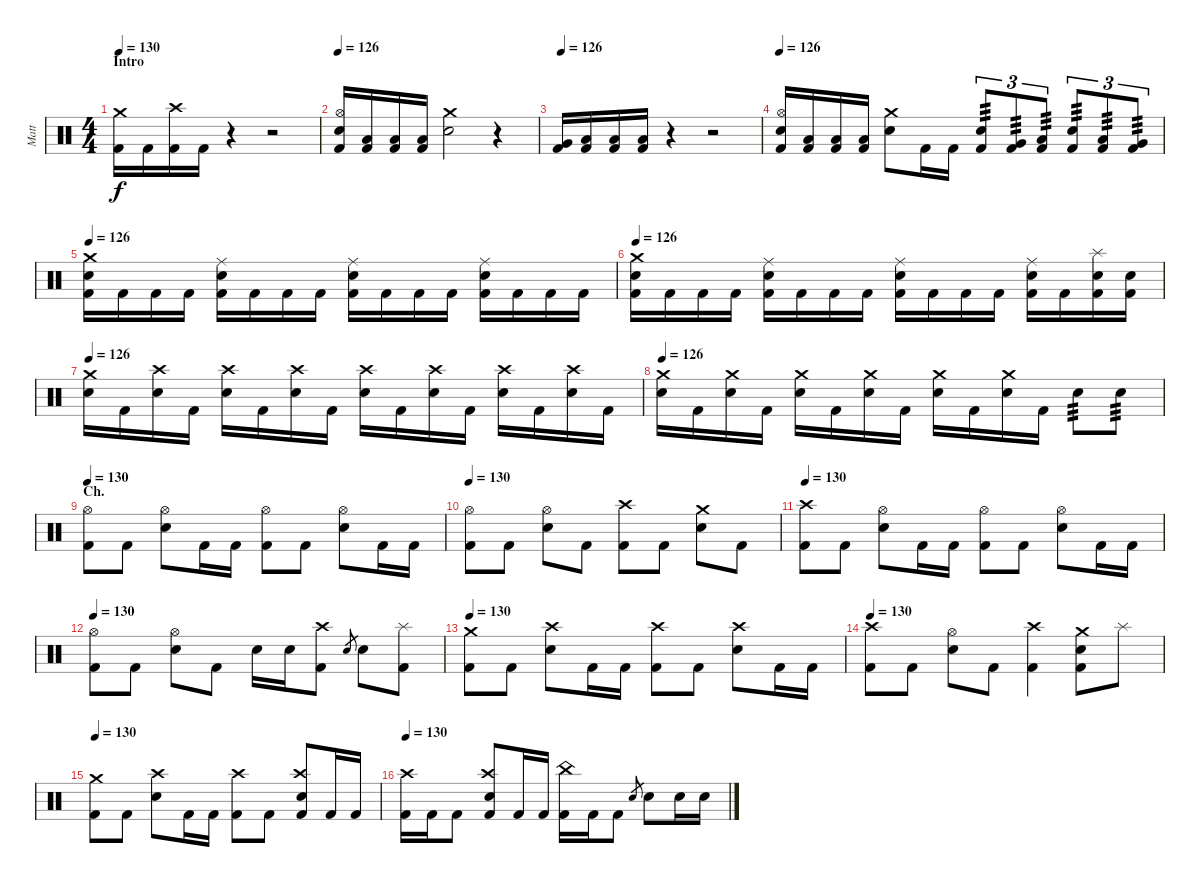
\track ("Matt" "Matt") {instrument percussion}
\staff {score}
\articulation defaults
\ts (4 4)
\section ("" "Intro")
\tempo 130
\tempo 126
\tempo 130
\clef neutral
\ks c
("Crash medium (hit)" "Kick (hit) 2").16{dy f} "Kick (hit) 2".16 ("Crash high (hit)" "Kick (hit) 2").16 "Kick (hit) 2".16 r.4 r.2 |
\tempo 126
("Hi-Hat (open)" "Electric Snare (hit)" "Kick (hit) 2").16 ("Low Floor Tom (hit)" "Kick (hit) 2").16 ("Low Floor Tom (hit)" "Kick (hit) 2").16 ("Low Floor Tom (hit)" "Kick (hit) 2").16 ("Crash medium (hit)" "Electric Snare (hit)").2 r.4 |
\tempo 126
("Very Low Tom (hit)" "Kick (hit) 2").16 ("Low Floor Tom (hit)" "Kick (hit) 2").16 ("Low Floor Tom (hit)" "Kick (hit) 2").16 ("Low Floor Tom (hit)" "Kick (hit) 2").16 r.4 r.2 |
\tempo 126
("Hi-Hat (open)" "Electric Snare (hit)" "Kick (hit) 2").16 ("Low Floor Tom (hit)" "Kick (hit) 2").16 ("Low Floor Tom (hit)" "Kick (hit) 2").16 ("Low Floor Tom (hit)" "Kick (hit) 2").16 ("Crash medium (hit)" "Electric Snare (hit)").8 "Kick (hit) 2".16 "Kick (hit) 2".16 ("Electric Snare (hit)" "Kick (hit) 2").8{tu (3 2) tp 3} ("Very Low Tom (hit)" "Kick (hit) 2").8{tu (3 2) tp 3} ("Low Floor Tom (hit)" "Kick (hit) 2").8{tu (3 2) tp 3} ("Electric Snare (hit)" "Kick (hit) 2").8{tu (3 2) tp 3} ("Low Tom (hit)" "Kick (hit) 2").8{tu (3 2) tp 3} ("Very Low Tom (hit)" "Kick (hit) 2").8{tu (3 2) tp 3} |
\tempo 126
("Crash medium (hit)" "Electric Snare (hit)" "Kick (hit) 2").16 "Kick (hit) 2".16 "Kick (hit) 2".16 "Kick (hit) 2".16 ("Ride (middle)" "Electric Snare (hit)" "Kick (hit) 2").16 "Kick (hit) 2".16 "Kick (hit) 2".16 "Kick (hit) 2".16 ("Ride (middle)" "Electric Snare (hit)" "Kick (hit) 2").16 "Kick (hit) 2".16 "Kick (hit) 2".16 "Kick (hit) 2".16 ("Ride (middle)" "Electric Snare (hit)" "Kick (hit) 2").16 "Kick (hit) 2".16 "Kick (hit) 2".16 "Kick (hit) 2".16 |
\tempo 126
("Crash medium (hit)" "Electric Snare (hit)" "Kick (hit) 2").16 "Kick (hit) 2".16 "Kick (hit) 2".16 "Kick (hit) 2".16 ("Ride (middle)" "Electric Snare (hit)" "Kick (hit) 2").16 "Kick (hit) 2".16 "Kick (hit) 2".16 "Kick (hit) 2".16 ("Ride (middle)" "Electric Snare (hit)" "Kick (hit) 2").16 "Kick (hit) 2".16 "Kick (hit) 2".16 "Kick (hit) 2".16 ("Ride (middle)" "Electric Snare (hit)" "Kick (hit) 2").16 "Kick (hit) 2".16 ("Splash (hit)" "Electric Snare (hit)" "Kick (hit) 2").16 ("Electric Snare (hit)" "Kick (hit) 2").16 |
\tempo 126
("Crash medium (hit)" "Electric Snare (hit)").16 "Kick (hit) 2".16 ("Crash high (hit)" "Electric Snare (hit)").16 "Kick (hit) 2".16 ("Crash high (hit)" "Electric Snare (hit)").16 "Kick (hit) 2".16 ("Crash high (hit)" "Electric Snare (hit)").16 "Kick (hit) 2".16 ("Crash high (hit)" "Electric Snare (hit)").16 "Kick (hit) 2".16 ("Crash high (hit)" "Electric Snare (hit)").16 "Kick (hit) 2".16 ("Crash high (hit)" "Electric Snare (hit)").16 "Kick (hit) 2".16 ("Crash high (hit)" "Electric Snare (hit)").16 "Kick (hit) 2".16 |
\tempo 126
("Crash medium (hit)" "Electric Snare (hit)").16 "Kick (hit) 2".16 ("Crash medium (hit)" "Electric Snare (hit)").16 "Kick (hit) 2".16 ("Crash medium (hit)" "Electric Snare (hit)").16 "Kick (hit) 2".16 ("Crash medium (hit)" "Electric Snare (hit)").16 "Kick (hit) 2".16 ("Crash medium (hit)" "Electric Snare (hit)").16 "Kick (hit) 2".16 ("Crash medium (hit)" "Electric Snare (hit)").16 "Kick (hit) 2".16 "Electric Snare (hit)".8{tp 3} "Electric Snare (hit)".8{tp 3} |
\section ("" "Ch.")
\tempo 130
("Hi-Hat (open)" "Kick (hit) 2").8 "Kick (hit) 2".8 ("Hi-Hat (open)" "Electric Snare (hit)").8 "Kick (hit) 2".16 "Kick (hit) 2".16 ("Hi-Hat (open)" "Kick (hit) 2").8 "Kick (hit) 2".8 ("Hi-Hat (open)" "Electric Snare (hit)").8 "Kick (hit) 2".16 "Kick (hit) 2".16 |
\tempo 130
("Hi-Hat (open)" "Kick (hit) 2").8 "Kick (hit) 2".8 ("Hi-Hat (open)" "Electric Snare (hit)").8 "Kick (hit) 2".8 ("Crash high (hit)" "Kick (hit) 2").8 "Kick (hit) 2".8 ("Crash medium (hit)" "Electric Snare (hit)").8 "Kick (hit) 2".8 |
\tempo 130
("Crash high (hit)" "Kick (hit) 2").8 "Kick (hit) 2".8 ("Hi-Hat (open)" "Electric Snare (hit)").8 "Kick (hit) 2".16 "Kick (hit) 2".16 ("Hi-Hat (open)" "Kick (hit) 2").8 "Kick (hit) 2".8 ("Hi-Hat (open)" "Electric Snare (hit)").8 "Kick (hit) 2".16 "Kick (hit) 2".16 |
\tempo 130
("Hi-Hat (open)" "Kick (hit) 2").8 "Kick (hit) 2".8 ("Hi-Hat (open)" "Electric Snare (hit)").8 "Kick (hit) 2".8 "Electric Snare (hit)".16 "Electric Snare (hit)".16 ("Crash high (hit)" "Kick (hit) 2").8 "Electric Snare (hit)".8{gr} "Electric Snare (hit)".8 ("Splash (hit)" "Kick (hit) 2").8 |
\tempo 130
("Crash medium (hit)" "Kick (hit) 2").8 "Kick (hit) 2".8 ("Crash high (hit)" "Electric Snare (hit)").8 "Kick (hit) 2".16 "Kick (hit) 2".16 ("Crash high (hit)" "Kick (hit) 2").8 "Kick (hit) 2".8 ("Crash high (hit)" "Electric Snare (hit)").8 "Kick (hit) 2".16 "Kick (hit) 2".16 |
\tempo 130
("Crash high (hit)" "Kick (hit) 2").8 "Kick (hit) 2".8 ("Hi-Hat (open)" "Electric Snare (hit)").8 "Kick (hit) 2".8 ("Crash high (hit)" "Kick (hit) 2").4 ("Crash medium (hit)" "Electric Snare (hit)" "Kick (hit) 2").8 "Splash (hit)".8 |
\tempo 130
("Crash medium (hit)" "Kick (hit) 2").8 "Kick (hit) 2".8 ("Crash high (hit)" "Electric Snare (hit)").8 "Kick (hit) 2".16 "Kick (hit) 2".16 ("Crash high (hit)" "Kick (hit) 2").8 "Kick (hit) 2".8 ("Crash high (hit)" "Electric Snare (hit)" "Kick (hit) 2").8 "Kick (hit) 2".16 "Kick (hit) 2".16 |
\tempo 130
("Crash high (hit)" "Kick (hit) 2").16 "Kick (hit) 2".16 "Kick (hit) 2".8 ("Crash high (hit)" "Electric Snare (hit)" "Kick (hit) 2").8 "Kick (hit) 2".16 "Kick (hit) 2".16 ("China (hit)" "Kick (hit) 2").16 "Kick (hit) 2".16 "Kick (hit) 2".8 "Electric Snare (hit)".8{gr} "Electric Snare (hit)".8 "Electric Snare (hit)".16 "Electric Snare (hit)".16
